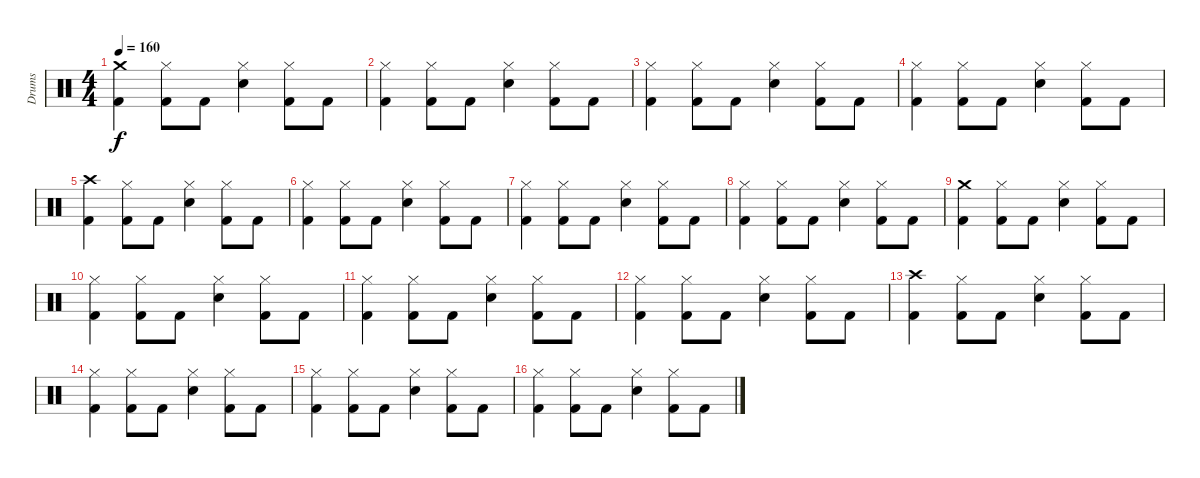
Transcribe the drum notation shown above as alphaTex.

\track ("Drums" "Drums") {instrument percussion}
\staff {score}
\articulation defaults
\ts (4 4)
\tempo 160
\clef neutral
\ks c
("Crash medium (hit)" "Kick (hit) 2").4{dy f} ("Hi-Hat (closed)" "Kick (hit) 2").8 "Kick (hit) 2".8 ("Hi-Hat (closed)" "Snare (hit) 2").4 ("Hi-Hat (closed)" "Kick (hit) 2").8 "Kick (hit) 2".8 |
("Hi-Hat (closed)" "Kick (hit) 2").4 ("Hi-Hat (closed)" "Kick (hit) 2").8 "Kick (hit) 2".8 ("Hi-Hat (closed)" "Snare (hit) 2").4 ("Hi-Hat (closed)" "Kick (hit) 2").8 "Kick (hit) 2".8 |
("Hi-Hat (closed)" "Kick (hit) 2").4 ("Hi-Hat (closed)" "Kick (hit) 2").8 "Kick (hit) 2".8 ("Hi-Hat (closed)" "Snare (hit) 2").4 ("Hi-Hat (closed)" "Kick (hit) 2").8 "Kick (hit) 2".8 |
("Hi-Hat (closed)" "Kick (hit) 2").4 ("Hi-Hat (closed)" "Kick (hit) 2").8 "Kick (hit) 2".8 ("Hi-Hat (closed)" "Snare (hit) 2").4 ("Hi-Hat (closed)" "Kick (hit) 2").8 "Kick (hit) 2".8 |
("Crash high (hit)" "Kick (hit) 2").4 ("Hi-Hat (closed)" "Kick (hit) 2").8 "Kick (hit) 2".8 ("Hi-Hat (closed)" "Snare (hit) 2").4 ("Hi-Hat (closed)" "Kick (hit) 2").8 "Kick (hit) 2".8 |
("Hi-Hat (closed)" "Kick (hit) 2").4 ("Hi-Hat (closed)" "Kick (hit) 2").8 "Kick (hit) 2".8 ("Hi-Hat (closed)" "Snare (hit) 2").4 ("Hi-Hat (closed)" "Kick (hit) 2").8 "Kick (hit) 2".8 |
("Hi-Hat (closed)" "Kick (hit) 2").4 ("Hi-Hat (closed)" "Kick (hit) 2").8 "Kick (hit) 2".8 ("Hi-Hat (closed)" "Snare (hit) 2").4 ("Hi-Hat (closed)" "Kick (hit) 2").8 "Kick (hit) 2".8 |
("Hi-Hat (closed)" "Kick (hit) 2").4 ("Hi-Hat (closed)" "Kick (hit) 2").8 "Kick (hit) 2".8 ("Hi-Hat (closed)" "Snare (hit) 2").4 ("Hi-Hat (closed)" "Kick (hit) 2").8 "Kick (hit) 2".8 |
("Crash medium (hit)" "Kick (hit) 2").4 ("Hi-Hat (closed)" "Kick (hit) 2").8 "Kick (hit) 2".8 ("Hi-Hat (closed)" "Snare (hit) 2").4 ("Hi-Hat (closed)" "Kick (hit) 2").8 "Kick (hit) 2".8 |
("Hi-Hat (closed)" "Kick (hit) 2").4 ("Hi-Hat (closed)" "Kick (hit) 2").8 "Kick (hit) 2".8 ("Hi-Hat (closed)" "Snare (hit) 2").4 ("Hi-Hat (closed)" "Kick (hit) 2").8 "Kick (hit) 2".8 |
("Hi-Hat (closed)" "Kick (hit) 2").4 ("Hi-Hat (closed)" "Kick (hit) 2").8 "Kick (hit) 2".8 ("Hi-Hat (closed)" "Snare (hit) 2").4 ("Hi-Hat (closed)" "Kick (hit) 2").8 "Kick (hit) 2".8 |
("Hi-Hat (closed)" "Kick (hit) 2").4 ("Hi-Hat (closed)" "Kick (hit) 2").8 "Kick (hit) 2".8 ("Hi-Hat (closed)" "Snare (hit) 2").4 ("Hi-Hat (closed)" "Kick (hit) 2").8 "Kick (hit) 2".8 |
("Crash high (hit)" "Kick (hit) 2").4 ("Hi-Hat (closed)" "Kick (hit) 2").8 "Kick (hit) 2".8 ("Hi-Hat (closed)" "Snare (hit) 2").4 ("Hi-Hat (closed)" "Kick (hit) 2").8 "Kick (hit) 2".8 |
("Hi-Hat (closed)" "Kick (hit) 2").4 ("Hi-Hat (closed)" "Kick (hit) 2").8 "Kick (hit) 2".8 ("Hi-Hat (closed)" "Snare (hit) 2").4 ("Hi-Hat (closed)" "Kick (hit) 2").8 "Kick (hit) 2".8 |
("Hi-Hat (closed)" "Kick (hit) 2").4 ("Hi-Hat (closed)" "Kick (hit) 2").8 "Kick (hit) 2".8 ("Hi-Hat (closed)" "Snare (hit) 2").4 ("Hi-Hat (closed)" "Kick (hit) 2").8 "Kick (hit) 2".8 |
("Hi-Hat (closed)" "Kick (hit) 2").4 ("Hi-Hat (closed)" "Kick (hit) 2").8 "Kick (hit) 2".8 ("Hi-Hat (closed)" "Snare (hit) 2").4 ("Hi-Hat (closed)" "Kick (hit) 2").8 "Kick (hit) 2".8
